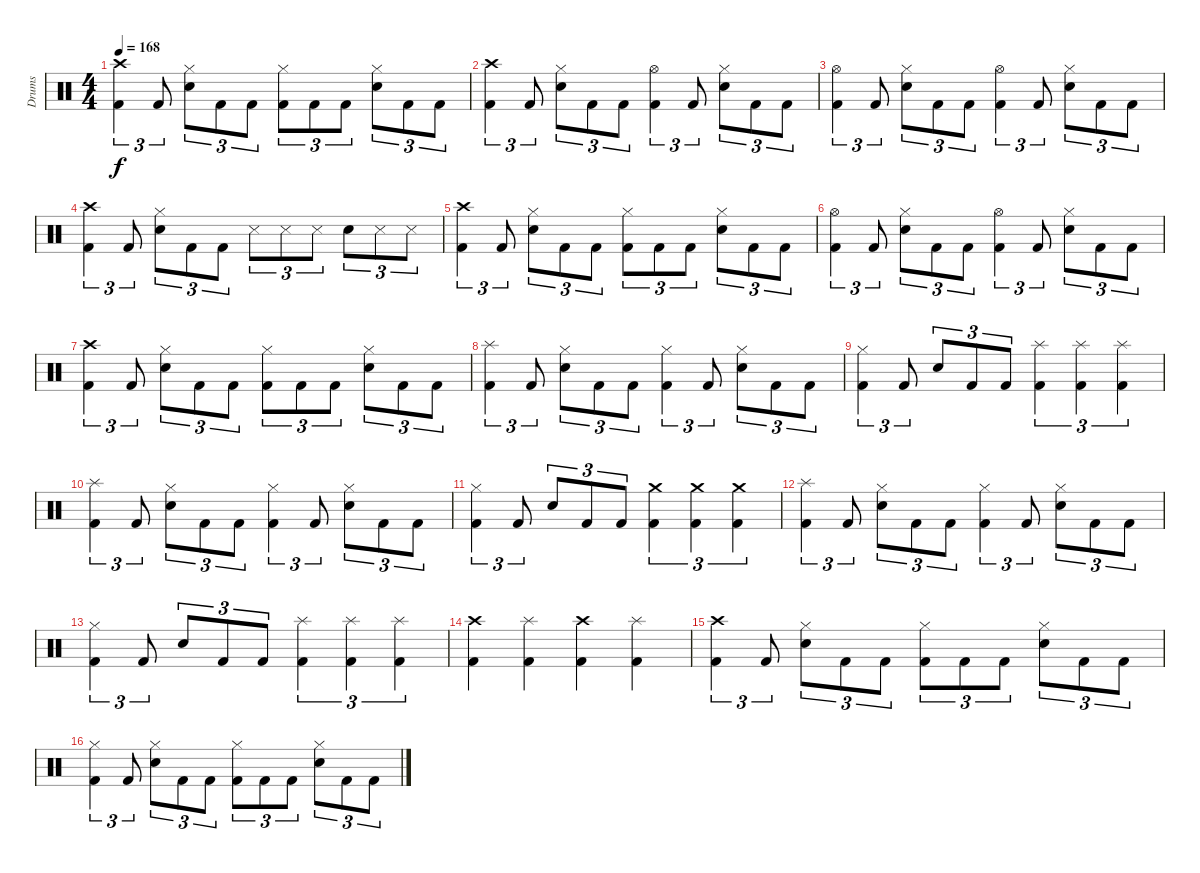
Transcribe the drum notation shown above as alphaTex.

\track ("Drums" "Drums") {instrument percussion}
\staff {score}
\articulation defaults
\ts (4 4)
\tempo 168
\clef neutral
\ks c
("Kick (hit) 2" "Crash high (hit)").4{tu (3 2) dy f} "Kick (hit) 2".8{tu (3 2)} ("Hi-Hat (closed)" "Electric Snare (hit)").8{tu (3 2)} "Kick (hit) 2".8{tu (3 2)} "Kick (hit) 2".8{tu (3 2)} ("Kick (hit) 2" "Hi-Hat (closed)").8{tu (3 2)} "Kick (hit) 2".8{tu (3 2)} "Kick (hit) 2".8{tu (3 2)} ("Hi-Hat (closed)" "Electric Snare (hit)").8{tu (3 2)} "Kick (hit) 2".8{tu (3 2)} "Kick (hit) 2".8{tu (3 2)} |
("Kick (hit) 2" "Crash high (hit)").4{tu (3 2)} "Kick (hit) 2".8{tu (3 2)} ("Hi-Hat (closed)" "Electric Snare (hit)").8{tu (3 2)} "Kick (hit) 2".8{tu (3 2)} "Kick (hit) 2".8{tu (3 2)} ("Kick (hit) 2" "Hi-Hat (open)").4{tu (3 2)} "Kick (hit) 2".8{tu (3 2)} ("Hi-Hat (closed)" "Electric Snare (hit)").8{tu (3 2)} "Kick (hit) 2".8{tu (3 2)} "Kick (hit) 2".8{tu (3 2)} |
("Kick (hit) 2" "Hi-Hat (open)").4{tu (3 2)} "Kick (hit) 2".8{tu (3 2)} ("Hi-Hat (closed)" "Electric Snare (hit)").8{tu (3 2)} "Kick (hit) 2".8{tu (3 2)} "Kick (hit) 2".8{tu (3 2)} ("Kick (hit) 2" "Hi-Hat (open)").4{tu (3 2)} "Kick (hit) 2".8{tu (3 2)} ("Hi-Hat (closed)" "Electric Snare (hit)").8{tu (3 2)} "Kick (hit) 2".8{tu (3 2)} "Kick (hit) 2".8{tu (3 2)} |
("Kick (hit) 2" "Crash high (hit)").4{tu (3 2)} "Kick (hit) 2".8{tu (3 2)} ("Hi-Hat (closed)" "Electric Snare (hit)").8{tu (3 2)} "Kick (hit) 2".8{tu (3 2)} "Kick (hit) 2".8{tu (3 2)} "Metronome (hit)".8{tu (3 2)} "Metronome (hit)".8{tu (3 2)} "Metronome (hit)".8{tu (3 2)} "Electric Snare (hit)".8{tu (3 2)} "Metronome (hit)".8{tu (3 2)} "Metronome (hit)".8{tu (3 2)} |
("Kick (hit) 2" "Crash high (hit)").4{tu (3 2)} "Kick (hit) 2".8{tu (3 2)} ("Hi-Hat (closed)" "Electric Snare (hit)").8{tu (3 2)} "Kick (hit) 2".8{tu (3 2)} "Kick (hit) 2".8{tu (3 2)} ("Kick (hit) 2" "Hi-Hat (closed)").8{tu (3 2)} "Kick (hit) 2".8{tu (3 2)} "Kick (hit) 2".8{tu (3 2)} ("Hi-Hat (closed)" "Electric Snare (hit)").8{tu (3 2)} "Kick (hit) 2".8{tu (3 2)} "Kick (hit) 2".8{tu (3 2)} |
("Kick (hit) 2" "Hi-Hat (open)").4{tu (3 2)} "Kick (hit) 2".8{tu (3 2)} ("Hi-Hat (closed)" "Electric Snare (hit)").8{tu (3 2)} "Kick (hit) 2".8{tu (3 2)} "Kick (hit) 2".8{tu (3 2)} ("Kick (hit) 2" "Hi-Hat (open)").4{tu (3 2)} "Kick (hit) 2".8{tu (3 2)} ("Hi-Hat (closed)" "Electric Snare (hit)").8{tu (3 2)} "Kick (hit) 2".8{tu (3 2)} "Kick (hit) 2".8{tu (3 2)} |
("Kick (hit) 2" "Crash high (hit)").4{tu (3 2)} "Kick (hit) 2".8{tu (3 2)} ("Hi-Hat (closed)" "Electric Snare (hit)").8{tu (3 2)} "Kick (hit) 2".8{tu (3 2)} "Kick (hit) 2".8{tu (3 2)} ("Kick (hit) 2" "Hi-Hat (closed)").8{tu (3 2)} "Kick (hit) 2".8{tu (3 2)} "Kick (hit) 2".8{tu (3 2)} ("Hi-Hat (closed)" "Electric Snare (hit)").8{tu (3 2)} "Kick (hit) 2".8{tu (3 2)} "Kick (hit) 2".8{tu (3 2)} |
("Kick (hit) 2" "Splash (hit)").4{tu (3 2)} "Kick (hit) 2".8{tu (3 2)} ("Electric Snare (hit)" "Hi-Hat (closed)").8{tu (3 2)} "Kick (hit) 2".8{tu (3 2)} "Kick (hit) 2".8{tu (3 2)} ("Kick (hit) 2" "Hi-Hat (closed)").4{tu (3 2)} "Kick (hit) 2".8{tu (3 2)} ("Electric Snare (hit)" "Hi-Hat (closed)").8{tu (3 2)} "Kick (hit) 2".8{tu (3 2)} "Kick (hit) 2".8{tu (3 2)} |
("Kick (hit) 2" "Hi-Hat (closed)").4{tu (3 2)} "Kick (hit) 2".8{tu (3 2)} "Electric Snare (hit)".8{tu (3 2)} "Kick (hit) 2".8{tu (3 2)} "Kick (hit) 2".8{tu (3 2)} ("Kick (hit) 2" "Splash (hit)").4{tu (3 2)} ("Kick (hit) 2" "Splash (hit)").4{tu (3 2)} ("Kick (hit) 2" "Splash (hit)").4{tu (3 2)} |
("Kick (hit) 2" "Splash (hit)").4{tu (3 2)} "Kick (hit) 2".8{tu (3 2)} ("Electric Snare (hit)" "Hi-Hat (closed)").8{tu (3 2)} "Kick (hit) 2".8{tu (3 2)} "Kick (hit) 2".8{tu (3 2)} ("Kick (hit) 2" "Hi-Hat (closed)").4{tu (3 2)} "Kick (hit) 2".8{tu (3 2)} ("Electric Snare (hit)" "Hi-Hat (closed)").8{tu (3 2)} "Kick (hit) 2".8{tu (3 2)} "Kick (hit) 2".8{tu (3 2)} |
("Kick (hit) 2" "Hi-Hat (closed)").4{tu (3 2)} "Kick (hit) 2".8{tu (3 2)} "Electric Snare (hit)".8{tu (3 2)} "Kick (hit) 2".8{tu (3 2)} "Kick (hit) 2".8{tu (3 2)} ("Kick (hit) 2" "Crash medium (hit)").4{tu (3 2) balance 5} ("Kick (hit) 2" "Crash medium (hit)").4{tu (3 2)} ("Kick (hit) 2" "Crash medium (hit)").4{tu (3 2)} |
("Kick (hit) 2" "Splash (hit)").4{tu (3 2) balance 8} "Kick (hit) 2".8{tu (3 2)} ("Electric Snare (hit)" "Hi-Hat (closed)").8{tu (3 2)} "Kick (hit) 2".8{tu (3 2)} "Kick (hit) 2".8{tu (3 2)} ("Kick (hit) 2" "Hi-Hat (closed)").4{tu (3 2)} "Kick (hit) 2".8{tu (3 2)} ("Electric Snare (hit)" "Hi-Hat (closed)").8{tu (3 2)} "Kick (hit) 2".8{tu (3 2)} "Kick (hit) 2".8{tu (3 2)} |
("Kick (hit) 2" "Hi-Hat (closed)").4{tu (3 2)} "Kick (hit) 2".8{tu (3 2)} "Electric Snare (hit)".8{tu (3 2)} "Kick (hit) 2".8{tu (3 2)} "Kick (hit) 2".8{tu (3 2)} ("Kick (hit) 2" "Splash (hit)").4{tu (3 2)} ("Kick (hit) 2" "Splash (hit)").4{tu (3 2)} ("Kick (hit) 2" "Splash (hit)").4{tu (3 2)} |
("Kick (hit) 2" "Crash high (hit)").4 ("Kick (hit) 2" "Splash (hit)").4 ("Kick (hit) 2" "Crash high (hit)").4 ("Kick (hit) 2" "Splash (hit)").4 |
("Kick (hit) 2" "Crash high (hit)").4{tu (3 2)} "Kick (hit) 2".8{tu (3 2)} ("Hi-Hat (closed)" "Electric Snare (hit)").8{tu (3 2)} "Kick (hit) 2".8{tu (3 2)} "Kick (hit) 2".8{tu (3 2)} ("Kick (hit) 2" "Hi-Hat (closed)").8{tu (3 2)} "Kick (hit) 2".8{tu (3 2)} "Kick (hit) 2".8{tu (3 2)} ("Hi-Hat (closed)" "Electric Snare (hit)").8{tu (3 2)} "Kick (hit) 2".8{tu (3 2)} "Kick (hit) 2".8{tu (3 2)} |
("Kick (hit) 2" "Hi-Hat (closed)").4{tu (3 2)} "Kick (hit) 2".8{tu (3 2)} ("Hi-Hat (closed)" "Electric Snare (hit)").8{tu (3 2)} "Kick (hit) 2".8{tu (3 2)} "Kick (hit) 2".8{tu (3 2)} ("Kick (hit) 2" "Hi-Hat (closed)").8{tu (3 2)} "Kick (hit) 2".8{tu (3 2)} "Kick (hit) 2".8{tu (3 2)} ("Hi-Hat (closed)" "Electric Snare (hit)").8{tu (3 2)} "Kick (hit) 2".8{tu (3 2)} "Kick (hit) 2".8{tu (3 2)}
